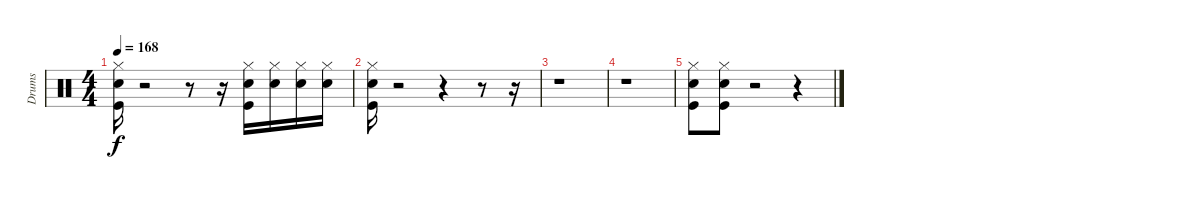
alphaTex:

\track ("Drums" "Drums") {instrument percussion}
\staff {score}
\articulation defaults
\ts (4 4)
\tempo 168
\clef neutral
\ks c
("Snare (hit) 2" "Kick (hit)" "Hi-Hat (closed)").16{dy f} r.2 r.8 r.16 ("Snare (hit) 2" "Kick (hit)" "Hi-Hat (closed)").16 ("Hi-Hat (closed)" "Snare (hit) 2").16 ("Hi-Hat (closed)" "Snare (hit) 2").16 ("Hi-Hat (closed)" "Snare (hit) 2").16 |
("Snare (hit) 2" "Kick (hit)" "Hi-Hat (closed)").16 r.2 r.4 r.8 r.16 |
r.1 |
r.1 |
("Snare (hit) 2" "Kick (hit)" "Hi-Hat (closed)").8 ("Hi-Hat (closed)" "Snare (hit) 2" "Kick (hit)").8 r.2 r.4
